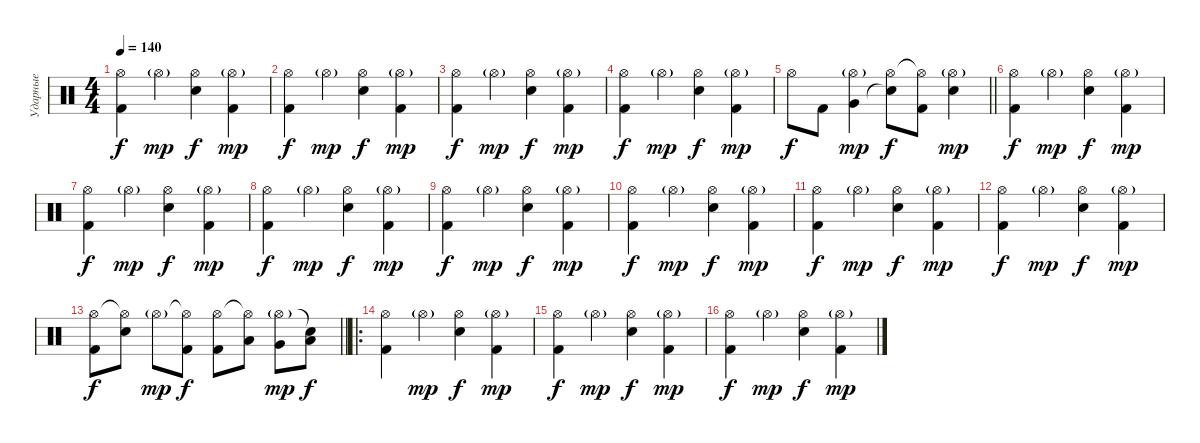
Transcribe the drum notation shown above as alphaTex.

\track ("Ударные" "Ударные") {instrument percussion}
\staff {score}
\articulation defaults
\ts (4 4)
\tempo 140
\clef neutral
\ks c
("Hi-Hat (open)" "Kick (hit) 2").4{dy f} "Hi-Hat (open)"{g}.4{dy mp} ("Hi-Hat (open)" "Electric Snare (hit)").4{dy f} ("Hi-Hat (open)"{g} "Kick (hit) 2").4{dy mp} |
("Hi-Hat (open)" "Kick (hit) 2").4{dy f} "Hi-Hat (open)"{g}.4{dy mp} ("Hi-Hat (open)" "Electric Snare (hit)").4{dy f} ("Hi-Hat (open)"{g} "Kick (hit) 2").4{dy mp} |
("Hi-Hat (open)" "Kick (hit) 2").4{dy f} "Hi-Hat (open)"{g}.4{dy mp} ("Hi-Hat (open)" "Electric Snare (hit)").4{dy f} ("Hi-Hat (open)"{g} "Kick (hit) 2").4{dy mp} |
("Hi-Hat (open)" "Kick (hit) 2").4{dy f} "Hi-Hat (open)"{g}.4{dy mp} ("Hi-Hat (open)" "Electric Snare (hit)").4{dy f} ("Hi-Hat (open)"{g} "Kick (hit) 2").4{dy mp} |
\barLineRight lightlight "Hi-Hat (open)".8{dy f} "Kick (hit) 2".8
("Hi-Hat (open)"{g} "Very Low Tom (hit)").4{dy mp} ("Hi-Hat (open)" "Snare (hit)"{t}).8{dy f} ("Hi-Hat (open)"{t} "Kick (hit) 2").8 ("Hi-Hat (open)"{g} "Electric Snare (hit)").4{dy mp} |
("Hi-Hat (open)" "Kick (hit) 2").4{dy f} "Hi-Hat (open)"{g}.4{dy mp} ("Hi-Hat (open)" "Electric Snare (hit)").4{dy f} ("Hi-Hat (open)"{g} "Kick (hit) 2").4{dy mp} |
("Hi-Hat (open)" "Kick (hit) 2").4{dy f} "Hi-Hat (open)"{g}.4{dy mp} ("Hi-Hat (open)" "Electric Snare (hit)").4{dy f} ("Hi-Hat (open)"{g} "Kick (hit) 2").4{dy mp} |
("Hi-Hat (open)" "Kick (hit) 2").4{dy f} "Hi-Hat (open)"{g}.4{dy mp} ("Hi-Hat (open)" "Electric Snare (hit)").4{dy f} ("Hi-Hat (open)"{g} "Kick (hit) 2").4{dy mp} |
("Hi-Hat (open)" "Kick (hit) 2").4{dy f} "Hi-Hat (open)"{g}.4{dy mp} ("Hi-Hat (open)" "Electric Snare (hit)").4{dy f} ("Hi-Hat (open)"{g} "Kick (hit) 2").4{dy mp} |
("Hi-Hat (open)" "Kick (hit) 2").4{dy f} "Hi-Hat (open)"{g}.4{dy mp} ("Hi-Hat (open)" "Electric Snare (hit)").4{dy f} ("Hi-Hat (open)"{g} "Kick (hit) 2").4{dy mp} |
("Hi-Hat (open)" "Kick (hit) 2").4{dy f} "Hi-Hat (open)"{g}.4{dy mp} ("Hi-Hat (open)" "Electric Snare (hit)").4{dy f} ("Hi-Hat (open)"{g} "Kick (hit) 2").4{dy mp} |
("Hi-Hat (open)" "Kick (hit) 2").4{dy f} "Hi-Hat (open)"{g}.4{dy mp} ("Hi-Hat (open)" "Electric Snare (hit)").4{dy f} ("Hi-Hat (open)"{g} "Kick (hit) 2").4{dy mp} |
\barLineRight lightlight
("Hi-Hat (open)" "Kick (hit) 2").8{dy f} ("Hi-Hat (open)"{t} "Electric Snare (hit)").8 "Hi-Hat (open)"{g}.8{dy mp} ("Hi-Hat (open)"{t} "Kick (hit) 2").8{dy f} ("Hi-Hat (open)" "Kick (hit) 2").8 ("Hi-Hat (open)"{t} "Low Floor Tom (hit)").8 ("Hi-Hat (open)"{g} "Very Low Tom (hit)").8{dy mp} ("Snare (hit)"{t} "Low Tom (hit)").8{dy f} |
\ro
("Hi-Hat (open)" "Kick (hit) 2").4 "Hi-Hat (open)"{g}.4{dy mp} ("Hi-Hat (open)" "Electric Snare (hit)").4{dy f} ("Hi-Hat (open)"{g} "Kick (hit) 2").4{dy mp} |
("Hi-Hat (open)" "Kick (hit) 2").4{dy f} "Hi-Hat (open)"{g}.4{dy mp} ("Hi-Hat (open)" "Electric Snare (hit)").4{dy f} ("Hi-Hat (open)"{g} "Kick (hit) 2").4{dy mp} |
("Hi-Hat (open)" "Kick (hit) 2").4{dy f} "Hi-Hat (open)"{g}.4{dy mp} ("Hi-Hat (open)" "Electric Snare (hit)").4{dy f} ("Hi-Hat (open)"{g} "Kick (hit) 2").4{dy mp}
